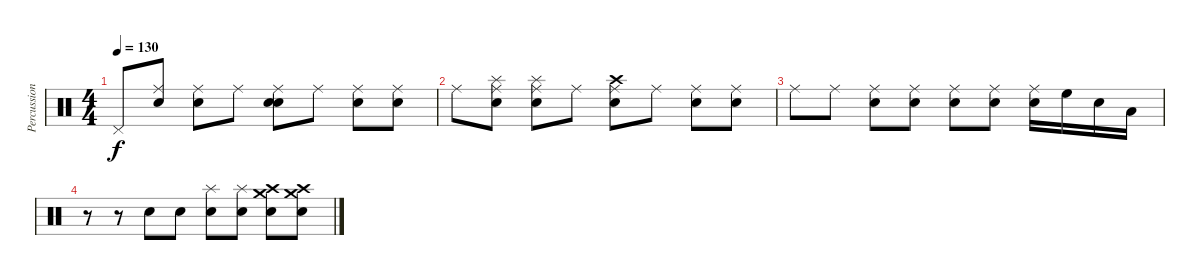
\track ("Percussion" "Percussion") {instrument percussion}
\staff {score}
\articulation defaults
\ts (4 4)
\tempo 130
\clef neutral
\ks c "Pedal Hi-Hat (hit)".8{dy f}
("Ride (middle)" "Electric Snare (hit)").8 ("Ride (middle)" "Electric Snare (hit)").8 "Ride (middle)".8 ("Ride (middle)" "Electric Snare (hit)" "Snare (hit) 2").8 "Ride (middle)".8 ("Ride (middle)" "Electric Snare (hit)").8 ("Ride (middle)" "Electric Snare (hit)").8 |
"Ride (middle)".8 ("Ride (middle)" "Splash (hit)" "Snare (hit) 2").8 ("Ride (middle)" "Splash (hit)" "Snare (hit) 2").8 "Ride (middle)".8 ("Ride (middle)" "Crash high (hit)" "Electric Snare (hit)").8 "Ride (middle)".8 ("Ride (middle)" "Electric Snare (hit)").8 ("Ride (middle)" "Electric Snare (hit)").8 |
"Ride (middle)".8 "Ride (middle)".8 ("Ride (middle)" "Electric Snare (hit)").8 ("Ride (middle)" "Electric Snare (hit)").8 ("Ride (middle)" "Electric Snare (hit)").8 ("Ride (middle)" "Electric Snare (hit)").8 ("Ride (middle)" "Electric Snare (hit)").16 "High Floor Tom (hit)".16 "Electric Snare (hit)".16 "Low Tom (hit)".16 |
r.8 r.8 "Electric Snare (hit)".8 "Electric Snare (hit)".8 ("Splash (hit)" "Electric Snare (hit)").8 ("Splash (hit)" "Electric Snare (hit)").8 ("Crash medium (hit)" "Crash high (hit)" "Electric Snare (hit)").8 ("Crash medium (hit)" "Crash high (hit)" "Electric Snare (hit)").8
